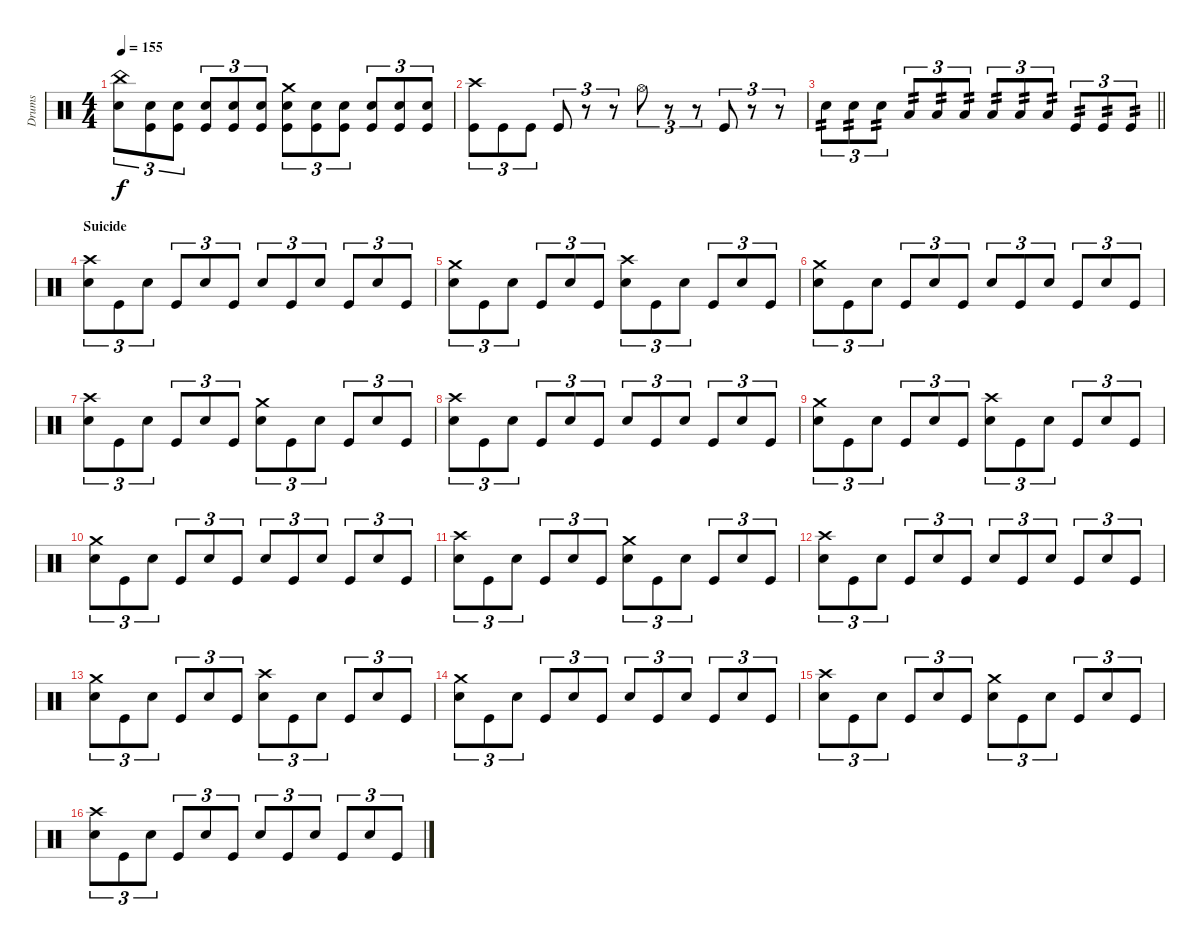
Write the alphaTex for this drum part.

\track ("Drums" "Drums") {instrument percussion}
\staff {score}
\articulation defaults
\ts (4 4)
\tempo 155
\clef neutral
\ks c
("China (hit)" "Electric Snare (hit)").8{tu (3 2) dy f} ("Electric Snare (hit)" "Kick (hit)").8{tu (3 2)} ("Electric Snare (hit)" "Kick (hit)").8{tu (3 2)} ("Electric Snare (hit)" "Kick (hit)").8{tu (3 2)} ("Electric Snare (hit)" "Kick (hit)").8{tu (3 2)} ("Electric Snare (hit)" "Kick (hit)").8{tu (3 2)} ("Crash medium (hit)" "Electric Snare (hit)" "Kick (hit)").8{tu (3 2)} ("Electric Snare (hit)" "Kick (hit)").8{tu (3 2)} ("Electric Snare (hit)" "Kick (hit)").8{tu (3 2)} ("Electric Snare (hit)" "Kick (hit)").8{tu (3 2)} ("Electric Snare (hit)" "Kick (hit)").8{tu (3 2)} ("Electric Snare (hit)" "Kick (hit)").8{tu (3 2)} |
("Crash high (hit)" "Kick (hit)").8{tu (3 2)} "Kick (hit)".8{tu (3 2)} "Kick (hit)".8{tu (3 2)} "Kick (hit)".8{tu (3 2)} r.8{tu (3 2)} r.8{tu (3 2)} "Hi-Hat (open)".8{tu (3 2)} r.8{tu (3 2)} r.8{tu (3 2)} "Kick (hit)".8{tu (3 2)} r.8{tu (3 2)} r.8{tu (3 2)} |
\barLineRight lightlight "Electric Snare (hit)".8{tu (3 2) tp 2} "Electric Snare (hit)".8{tu (3 2) tp 2} "Electric Snare (hit)".8{tu (3 2) tp 2} "Low Tom (hit)".8{tu (3 2) tp 2} "Low Tom (hit)".8{tu (3 2) tp 2} "Low Tom (hit)".8{tu (3 2) tp 2} "Low Floor Tom (hit)".8{tu (3 2) tp 2} "Low Floor Tom (hit)".8{tu (3 2) tp 2} "Low Floor Tom (hit)".8{tu (3 2) tp 2} "Kick (hit)".8{tu (3 2) tp 2} "Kick (hit)".8{tu (3 2) tp 2} "Kick (hit)".8{tu (3 2) tp 2}
|
\section ("" "Suicide")
("Crash high (hit)" "Electric Snare (hit)").8{tu (3 2)} "Kick (hit)".8{tu (3 2)} "Electric Snare (hit)".8{tu (3 2)} "Kick (hit)".8{tu (3 2)} "Electric Snare (hit)".8{tu (3 2)} "Kick (hit)".8{tu (3 2)} "Electric Snare (hit)".8{tu (3 2)} "Kick (hit)".8{tu (3 2)} "Electric Snare (hit)".8{tu (3 2)} "Kick (hit)".8{tu (3 2)} "Electric Snare (hit)".8{tu (3 2)} "Kick (hit)".8{tu (3 2)} |
("Crash medium (hit)" "Electric Snare (hit)").8{tu (3 2)} "Kick (hit)".8{tu (3 2)} "Electric Snare (hit)".8{tu (3 2)} "Kick (hit)".8{tu (3 2)} "Electric Snare (hit)".8{tu (3 2)} "Kick (hit)".8{tu (3 2)} ("Crash high (hit)" "Electric Snare (hit)").8{tu (3 2)} "Kick (hit)".8{tu (3 2)} "Electric Snare (hit)".8{tu (3 2)} "Kick (hit)".8{tu (3 2)} "Electric Snare (hit)".8{tu (3 2)} "Kick (hit)".8{tu (3 2)} |
("Crash medium (hit)" "Electric Snare (hit)").8{tu (3 2)} "Kick (hit)".8{tu (3 2)} "Electric Snare (hit)".8{tu (3 2)} "Kick (hit)".8{tu (3 2)} "Electric Snare (hit)".8{tu (3 2)} "Kick (hit)".8{tu (3 2)} "Electric Snare (hit)".8{tu (3 2)} "Kick (hit)".8{tu (3 2)} "Electric Snare (hit)".8{tu (3 2)} "Kick (hit)".8{tu (3 2)} "Electric Snare (hit)".8{tu (3 2)} "Kick (hit)".8{tu (3 2)} |
("Crash high (hit)" "Electric Snare (hit)").8{tu (3 2)} "Kick (hit)".8{tu (3 2)} "Electric Snare (hit)".8{tu (3 2)} "Kick (hit)".8{tu (3 2)} "Electric Snare (hit)".8{tu (3 2)} "Kick (hit)".8{tu (3 2)} ("Crash medium (hit)" "Electric Snare (hit)").8{tu (3 2)} "Kick (hit)".8{tu (3 2)} "Electric Snare (hit)".8{tu (3 2)} "Kick (hit)".8{tu (3 2)} "Electric Snare (hit)".8{tu (3 2)} "Kick (hit)".8{tu (3 2)} |
("Crash high (hit)" "Electric Snare (hit)").8{tu (3 2)} "Kick (hit)".8{tu (3 2)} "Electric Snare (hit)".8{tu (3 2)} "Kick (hit)".8{tu (3 2)} "Electric Snare (hit)".8{tu (3 2)} "Kick (hit)".8{tu (3 2)} "Electric Snare (hit)".8{tu (3 2)} "Kick (hit)".8{tu (3 2)} "Electric Snare (hit)".8{tu (3 2)} "Kick (hit)".8{tu (3 2)} "Electric Snare (hit)".8{tu (3 2)} "Kick (hit)".8{tu (3 2)} |
("Crash medium (hit)" "Electric Snare (hit)").8{tu (3 2)} "Kick (hit)".8{tu (3 2)} "Electric Snare (hit)".8{tu (3 2)} "Kick (hit)".8{tu (3 2)} "Electric Snare (hit)".8{tu (3 2)} "Kick (hit)".8{tu (3 2)} ("Crash high (hit)" "Electric Snare (hit)").8{tu (3 2)} "Kick (hit)".8{tu (3 2)} "Electric Snare (hit)".8{tu (3 2)} "Kick (hit)".8{tu (3 2)} "Electric Snare (hit)".8{tu (3 2)} "Kick (hit)".8{tu (3 2)} |
("Crash medium (hit)" "Electric Snare (hit)").8{tu (3 2)} "Kick (hit)".8{tu (3 2)} "Electric Snare (hit)".8{tu (3 2)} "Kick (hit)".8{tu (3 2)} "Electric Snare (hit)".8{tu (3 2)} "Kick (hit)".8{tu (3 2)} "Electric Snare (hit)".8{tu (3 2)} "Kick (hit)".8{tu (3 2)} "Electric Snare (hit)".8{tu (3 2)} "Kick (hit)".8{tu (3 2)} "Electric Snare (hit)".8{tu (3 2)} "Kick (hit)".8{tu (3 2)} |
("Crash high (hit)" "Electric Snare (hit)").8{tu (3 2)} "Kick (hit)".8{tu (3 2)} "Electric Snare (hit)".8{tu (3 2)} "Kick (hit)".8{tu (3 2)} "Electric Snare (hit)".8{tu (3 2)} "Kick (hit)".8{tu (3 2)} ("Crash medium (hit)" "Electric Snare (hit)").8{tu (3 2)} "Kick (hit)".8{tu (3 2)} "Electric Snare (hit)".8{tu (3 2)} "Kick (hit)".8{tu (3 2)} "Electric Snare (hit)".8{tu (3 2)} "Kick (hit)".8{tu (3 2)} |
("Crash high (hit)" "Electric Snare (hit)").8{tu (3 2)} "Kick (hit)".8{tu (3 2)} "Electric Snare (hit)".8{tu (3 2)} "Kick (hit)".8{tu (3 2)} "Electric Snare (hit)".8{tu (3 2)} "Kick (hit)".8{tu (3 2)} "Electric Snare (hit)".8{tu (3 2)} "Kick (hit)".8{tu (3 2)} "Electric Snare (hit)".8{tu (3 2)} "Kick (hit)".8{tu (3 2)} "Electric Snare (hit)".8{tu (3 2)} "Kick (hit)".8{tu (3 2)} |
("Crash medium (hit)" "Electric Snare (hit)").8{tu (3 2)} "Kick (hit)".8{tu (3 2)} "Electric Snare (hit)".8{tu (3 2)} "Kick (hit)".8{tu (3 2)} "Electric Snare (hit)".8{tu (3 2)} "Kick (hit)".8{tu (3 2)} ("Crash high (hit)" "Electric Snare (hit)").8{tu (3 2)} "Kick (hit)".8{tu (3 2)} "Electric Snare (hit)".8{tu (3 2)} "Kick (hit)".8{tu (3 2)} "Electric Snare (hit)".8{tu (3 2)} "Kick (hit)".8{tu (3 2)} |
("Crash medium (hit)" "Electric Snare (hit)").8{tu (3 2)} "Kick (hit)".8{tu (3 2)} "Electric Snare (hit)".8{tu (3 2)} "Kick (hit)".8{tu (3 2)} "Electric Snare (hit)".8{tu (3 2)} "Kick (hit)".8{tu (3 2)} "Electric Snare (hit)".8{tu (3 2)} "Kick (hit)".8{tu (3 2)} "Electric Snare (hit)".8{tu (3 2)} "Kick (hit)".8{tu (3 2)} "Electric Snare (hit)".8{tu (3 2)} "Kick (hit)".8{tu (3 2)} |
("Crash high (hit)" "Electric Snare (hit)").8{tu (3 2)} "Kick (hit)".8{tu (3 2)} "Electric Snare (hit)".8{tu (3 2)} "Kick (hit)".8{tu (3 2)} "Electric Snare (hit)".8{tu (3 2)} "Kick (hit)".8{tu (3 2)} ("Crash medium (hit)" "Electric Snare (hit)").8{tu (3 2)} "Kick (hit)".8{tu (3 2)} "Electric Snare (hit)".8{tu (3 2)} "Kick (hit)".8{tu (3 2)} "Electric Snare (hit)".8{tu (3 2)} "Kick (hit)".8{tu (3 2)} |
("Crash high (hit)" "Electric Snare (hit)").8{tu (3 2)} "Kick (hit)".8{tu (3 2)} "Electric Snare (hit)".8{tu (3 2)} "Kick (hit)".8{tu (3 2)} "Electric Snare (hit)".8{tu (3 2)} "Kick (hit)".8{tu (3 2)} "Electric Snare (hit)".8{tu (3 2)} "Kick (hit)".8{tu (3 2)} "Electric Snare (hit)".8{tu (3 2)} "Kick (hit)".8{tu (3 2)} "Electric Snare (hit)".8{tu (3 2)} "Kick (hit)".8{tu (3 2)}
